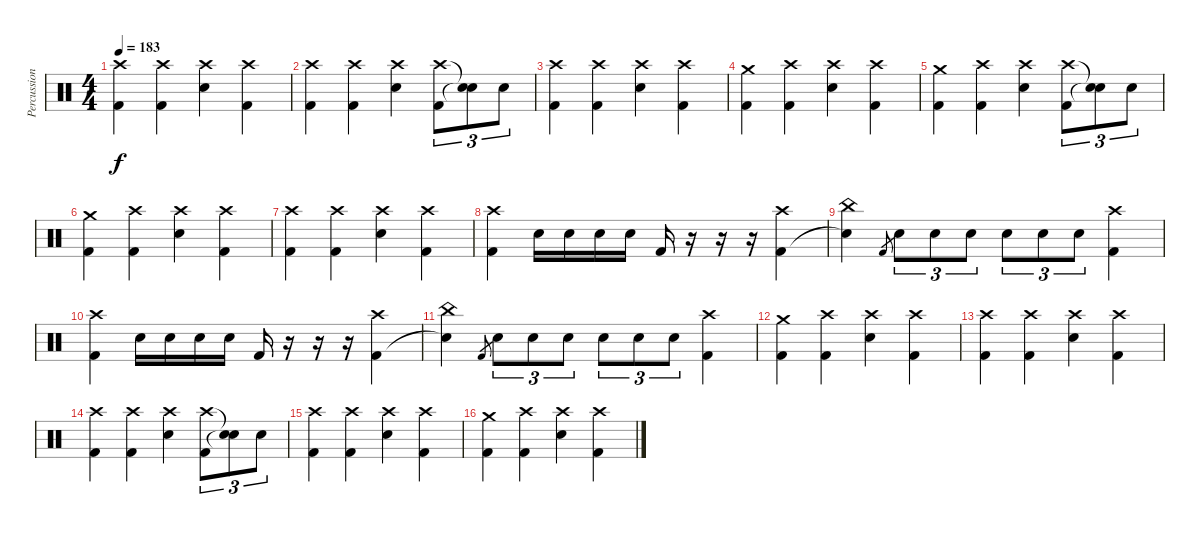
\track ("Percussion" "Percussion") {instrument percussion}
\staff {score}
\articulation defaults
\ts (4 4)
\tempo 183
\clef neutral
\ks c
("Crash high (hit)" "Kick (hit) 2").4{dy f} ("Crash high (hit)" "Kick (hit) 2").4 ("Crash high (hit)" "Electric Snare (hit)").4 ("Crash high (hit)" "Kick (hit) 2").4 |
("Crash high (hit)" "Kick (hit) 2").4 ("Crash high (hit)" "Kick (hit) 2").4 ("Crash high (hit)" "Electric Snare (hit)").4 ("Crash high (hit)" "Kick (hit) 2").8{tu (3 2)} ("Snare (hit)"{t} "Snare (hit)"{t}).8{tu (3 2)} "Electric Snare (hit)".8{tu (3 2)} |
("Crash high (hit)" "Kick (hit) 2").4 ("Crash high (hit)" "Kick (hit) 2").4 ("Crash high (hit)" "Electric Snare (hit)").4 ("Crash high (hit)" "Kick (hit) 2").4 |
("Crash medium (hit)" "Kick (hit) 2").4 ("Crash high (hit)" "Kick (hit) 2").4 ("Crash high (hit)" "Electric Snare (hit)").4 ("Crash high (hit)" "Kick (hit) 2").4 |
("Crash medium (hit)" "Kick (hit) 2").4 ("Crash high (hit)" "Kick (hit) 2").4 ("Crash high (hit)" "Electric Snare (hit)").4 ("Crash high (hit)" "Kick (hit) 2").8{tu (3 2)} ("Snare (hit)"{t} "Snare (hit)"{t}).8{tu (3 2)} "Electric Snare (hit)".8{tu (3 2)} |
("Crash medium (hit)" "Kick (hit) 2").4 ("Crash high (hit)" "Kick (hit) 2").4 ("Crash high (hit)" "Electric Snare (hit)").4 ("Crash high (hit)" "Kick (hit) 2").4 |
("Crash high (hit)" "Kick (hit) 2").4 ("Crash high (hit)" "Kick (hit) 2").4 ("Crash high (hit)" "Electric Snare (hit)").4 ("Crash high (hit)" "Kick (hit) 2").4 |
("Crash high (hit)" "Kick (hit) 2").4 "Electric Snare (hit)".16 "Electric Snare (hit)".16 "Electric Snare (hit)".16 "Electric Snare (hit)".16 "Kick (hit) 2".16 r.16 r.16 r.16 ("Crash high (hit)" "Kick (hit) 2").4 |
("China (hit)" "Snare (hit)"{t}).4 "Kick (hit) 2".8{gr} "Electric Snare (hit)".8{tu (3 2)} "Electric Snare (hit)".8{tu (3 2)} "Electric Snare (hit)".8{tu (3 2)} "Electric Snare (hit)".8{tu (3 2)} "Electric Snare (hit)".8{tu (3 2)} "Electric Snare (hit)".8{tu (3 2)} ("Crash high (hit)" "Kick (hit) 2").4 |
("Crash high (hit)" "Kick (hit) 2").4 "Electric Snare (hit)".16 "Electric Snare (hit)".16 "Electric Snare (hit)".16 "Electric Snare (hit)".16 "Kick (hit) 2".16 r.16 r.16 r.16 ("Crash high (hit)" "Kick (hit) 2").4 |
("China (hit)" "Snare (hit)"{t}).4 "Kick (hit) 2".8{gr} "Electric Snare (hit)".8{tu (3 2)} "Electric Snare (hit)".8{tu (3 2)} "Electric Snare (hit)".8{tu (3 2)} "Electric Snare (hit)".8{tu (3 2)} "Electric Snare (hit)".8{tu (3 2)} "Electric Snare (hit)".8{tu (3 2)} ("Crash high (hit)" "Kick (hit) 2").4 |
("Crash medium (hit)" "Kick (hit) 2").4 ("Crash high (hit)" "Kick (hit) 2").4 ("Crash high (hit)" "Electric Snare (hit)").4 ("Crash high (hit)" "Kick (hit) 2").4 |
("Crash high (hit)" "Kick (hit) 2").4 ("Crash high (hit)" "Kick (hit) 2").4 ("Crash high (hit)" "Electric Snare (hit)").4 ("Crash high (hit)" "Kick (hit) 2").4 |
("Crash high (hit)" "Kick (hit) 2").4 ("Crash high (hit)" "Kick (hit) 2").4 ("Crash high (hit)" "Electric Snare (hit)").4 ("Crash high (hit)" "Kick (hit) 2").8{tu (3 2)} ("Snare (hit)"{t} "Snare (hit)"{t}).8{tu (3 2)} "Electric Snare (hit)".8{tu (3 2)} |
("Crash high (hit)" "Kick (hit) 2").4 ("Crash high (hit)" "Kick (hit) 2").4 ("Crash high (hit)" "Electric Snare (hit)").4 ("Crash high (hit)" "Kick (hit) 2").4 |
("Crash medium (hit)" "Kick (hit) 2").4 ("Crash high (hit)" "Kick (hit) 2").4 ("Crash high (hit)" "Electric Snare (hit)").4 ("Crash high (hit)" "Kick (hit) 2").4
